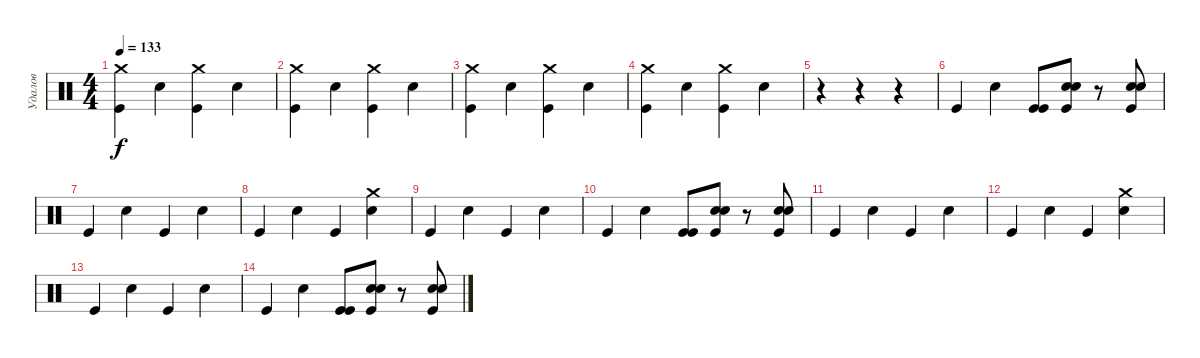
\track ("Удалов" "Удалов") {instrument percussion}
\staff {score}
\articulation defaults
\ts (4 4)
\tempo 133
\clef neutral
\ks c
("Crash medium (hit)" "Kick (hit)").4{dy f} "Electric Snare (hit)".4 ("Crash medium (hit)" "Kick (hit)").4 "Electric Snare (hit)".4 |
("Crash medium (hit)" "Kick (hit)").4 "Electric Snare (hit)".4 ("Crash medium (hit)" "Kick (hit)").4 "Electric Snare (hit)".4 |
("Crash medium (hit)" "Kick (hit)").4 "Electric Snare (hit)".4 ("Crash medium (hit)" "Kick (hit)").4 "Electric Snare (hit)".4 |
("Crash medium (hit)" "Kick (hit)").4 "Electric Snare (hit)".4 ("Crash medium (hit)" "Kick (hit)").4 "Electric Snare (hit)".4 |
r.4 r.4 r.4 |
"Kick (hit)".4 "Electric Snare (hit)".4 ("Kick (hit)" "Kick (hit)").8 ("Electric Snare (hit)" "Electric Snare (hit)" "Kick (hit)").8 r.8 ("Electric Snare (hit)" "Electric Snare (hit)" "Kick (hit)").8 |
"Kick (hit)".4 "Electric Snare (hit)".4 "Kick (hit)".4 "Electric Snare (hit)".4 |
"Kick (hit)".4 "Electric Snare (hit)".4 "Kick (hit)".4 ("Crash medium (hit)" "Electric Snare (hit)").4 |
"Kick (hit)".4 "Electric Snare (hit)".4 "Kick (hit)".4 "Electric Snare (hit)".4 |
"Kick (hit)".4 "Electric Snare (hit)".4 ("Kick (hit)" "Kick (hit)").8 ("Electric Snare (hit)" "Electric Snare (hit)" "Kick (hit)").8 r.8 ("Electric Snare (hit)" "Electric Snare (hit)" "Kick (hit)").8 |
"Kick (hit)".4 "Electric Snare (hit)".4 "Kick (hit)".4 "Electric Snare (hit)".4 |
"Kick (hit)".4 "Electric Snare (hit)".4 "Kick (hit)".4 ("Crash medium (hit)" "Electric Snare (hit)").4 |
"Kick (hit)".4 "Electric Snare (hit)".4 "Kick (hit)".4 "Electric Snare (hit)".4 |
"Kick (hit)".4 "Electric Snare (hit)".4 ("Kick (hit)" "Kick (hit)").8 ("Electric Snare (hit)" "Electric Snare (hit)" "Kick (hit)").8 r.8 ("Electric Snare (hit)" "Electric Snare (hit)" "Kick (hit)").8
